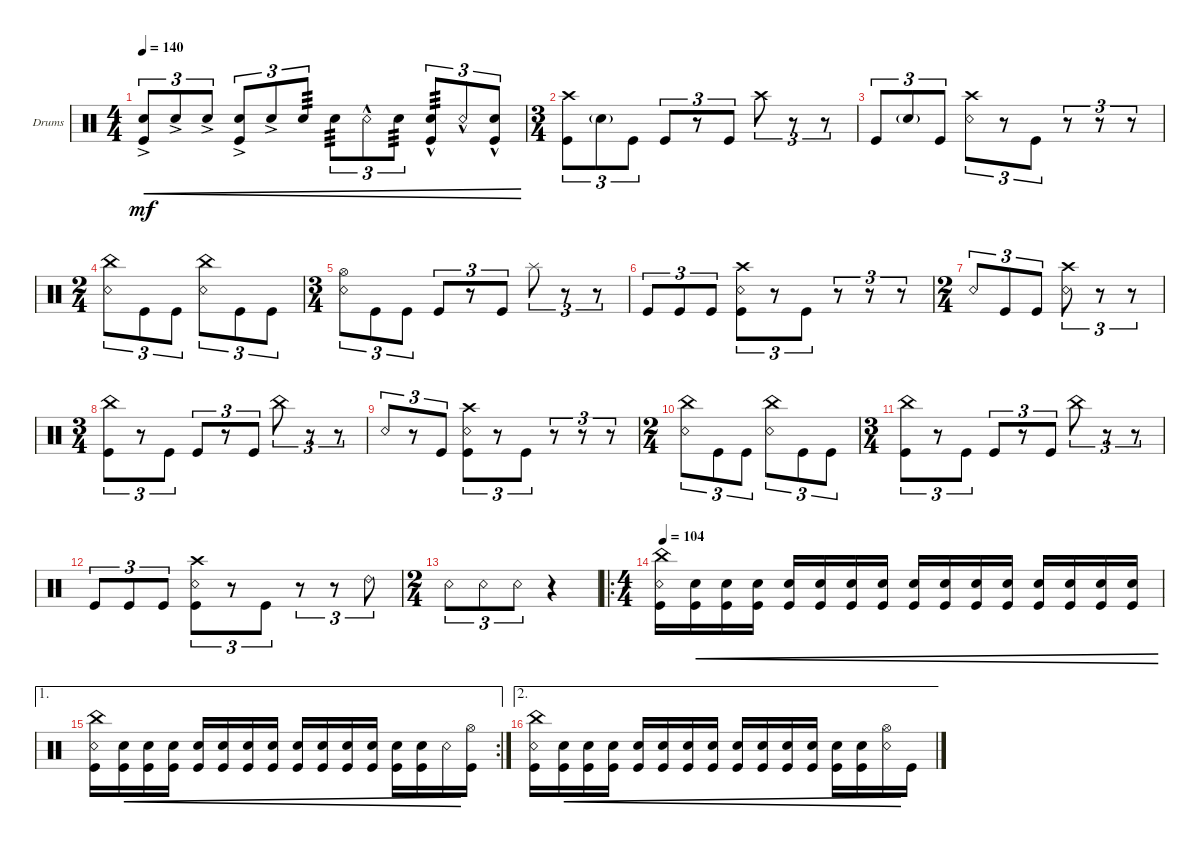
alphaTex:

\defaultSystemsLayout 4
\bracketExtendMode groupsimilarinstruments
\firstSystemTrackNameOrientation horizontal
\otherSystemsTrackNameOrientation horizontal
\track ("Drumkit" "Drums") {instrument percussion}
\staff {score}
\articulation defaults
\ts (4 4)
\tempo 140
\clef neutral
\ks c
("Snare (hit) 2"{ac} "Kick (hit)").8{tu (3 2) cre dy mf} "Snare (hit) 2"{ac}.8{tu (3 2) cre} "Snare (hit) 2"{ac}.8{tu (3 2) cre} ("Snare (hit) 2"{ac} "Kick (hit)").8{tu (3 2) cre} "Snare (hit) 2"{ac}.8{tu (3 2) cre} "Snare (hit) 2".8{tu (3 2) tp 3 cre} "Snare (hit) 2".8{tu (3 2) tp 3 cre} "Snare (rim shot)"{hac}.8{tu (3 2) cre} "Snare (hit) 2".8{tu (3 2) tp 3 cre} ("Snare (hit) 2"{hac} "Kick (hit)").8{tu (3 2) tp 3 cre} "Snare (rim shot)"{hac}.8{tu (3 2) cre} ("Snare (hit) 2"{hac} "Kick (hit)").8{tu (3 2) cre} |
\ts (3 4)
("Kick (hit)" "Crash high (hit)").8{tu (3 2)} "Snare (hit) 2"{g}.8{tu (3 2)} "Kick (hit)".8{tu (3 2)} "Kick (hit)".8{tu (3 2)} r.8{tu (3 2)} "Kick (hit)".8{tu (3 2)} "Crash high (hit)".8{tu (3 2)} r.8{tu (3 2)} r.8{tu (3 2)} |
"Kick (hit)".8{tu (3 2)} "Snare (hit) 2"{g}.8{tu (3 2)} "Kick (hit)".8{tu (3 2)} ("Crash high (hit)" "Snare (rim shot)").8{tu (3 2)} r.8{tu (3 2)} "Kick (hit)".8{tu (3 2)} r.8{tu (3 2)} r.8{tu (3 2)} r.8{tu (3 2)} |
\ts (2 4)
("Snare (rim shot)" "China (hit)").8{tu (3 2)} "Kick (hit)".8{tu (3 2)} "Kick (hit)".8{tu (3 2)} ("Snare (rim shot)" "China (hit)").8{tu (3 2)} "Kick (hit)".8{tu (3 2)} "Kick (hit)".8{tu (3 2)} |
\ts (3 4)
("Snare (rim shot)" "Hi-Hat (open)").8{tu (3 2)} "Kick (hit)".8{tu (3 2)} "Kick (hit)".8{tu (3 2)} "Kick (hit)".8{tu (3 2)} r.8{tu (3 2)} "Kick (hit)".8{tu (3 2)} "Splash (hit)".8{tu (3 2)} r.8{tu (3 2)} r.8{tu (3 2)} |
"Kick (hit)".8{tu (3 2)} "Kick (hit)".8{tu (3 2)} "Kick (hit)".8{tu (3 2)} ("Crash high (hit)" "Kick (hit)" "Snare (rim shot)").8{tu (3 2)} r.8{tu (3 2)} "Kick (hit)".8{tu (3 2)} r.8{tu (3 2)} r.8{tu (3 2)} r.8{tu (3 2)} |
\ts (2 4)
"Snare (rim shot)".8{tu (3 2)} "Kick (hit)".8{tu (3 2)} "Kick (hit)".8{tu (3 2)} ("Crash high (hit)" "Snare (rim shot)").8{tu (3 2)} r.8{tu (3 2)} r.8{tu (3 2)} |
\ts (3 4)
("Kick (hit)" "China (hit)").8{tu (3 2)} r.8{tu (3 2)} "Kick (hit)".8{tu (3 2)} "Kick (hit)".8{tu (3 2)} r.8{tu (3 2)} "Kick (hit)".8{tu (3 2)} "China (hit)".8{tu (3 2)} r.8{tu (3 2)} r.8{tu (3 2)} |
"Snare (rim shot)".8{tu (3 2)} r.8{tu (3 2)} "Kick (hit)".8{tu (3 2)} ("Crash high (hit)" "Kick (hit)" "Snare (rim shot)").8{tu (3 2)} r.8{tu (3 2)} "Kick (hit)".8{tu (3 2)} r.8{tu (3 2)} r.8{tu (3 2)} r.8{tu (3 2)} |
\ts (2 4)
("Snare (rim shot)" "China (hit)").8{tu (3 2)} "Kick (hit)".8{tu (3 2)} "Kick (hit)".8{tu (3 2)} ("Snare (rim shot)" "China (hit)").8{tu (3 2)} "Kick (hit)".8{tu (3 2)} "Kick (hit)".8{tu (3 2)} |
\ts (3 4)
("Kick (hit)" "China (hit)").8{tu (3 2)} r.8{tu (3 2)} "Kick (hit)".8{tu (3 2)} "Kick (hit)".8{tu (3 2)} r.8{tu (3 2)} "Kick (hit)".8{tu (3 2)} "China (hit)".8{tu (3 2)} r.8{tu (3 2)} r.8{tu (3 2)} |
"Kick (hit)".8{tu (3 2)} "Kick (hit)".8{tu (3 2)} "Kick (hit)".8{tu (3 2)} ("Crash high (hit)" "Kick (hit)" "Snare (rim shot)").8{tu (3 2)} r.8{tu (3 2)} "Kick (hit)".8{tu (3 2)} r.8{tu (3 2)} r.8{tu (3 2)} "Ride (bell) 2".8{tu (3 2)} |
\ts (2 4)
"Snare (rim shot)".8{tu (3 2)} "Snare (rim shot)".8{tu (3 2)} "Snare (rim shot)".8{tu (3 2)} r.4 |
\ro
\ts (4 4)
\tempo 104
("Kick (hit)" "Snare (rim shot)" "China (hit)").16 ("Kick (hit)" "Snare (hit) 2").16{cre} ("Kick (hit)" "Snare (hit) 2").16{cre} ("Kick (hit)" "Snare (hit) 2").16{cre} ("Kick (hit)" "Snare (hit) 2").16{cre} ("Kick (hit)" "Snare (hit) 2").16{cre} ("Kick (hit)" "Snare (hit) 2").16{cre} ("Kick (hit)" "Snare (hit) 2").16{cre} ("Kick (hit)" "Snare (hit) 2").16{cre} ("Kick (hit)" "Snare (hit) 2").16{cre} ("Kick (hit)" "Snare (hit) 2").16{cre} ("Kick (hit)" "Snare (hit) 2").16{cre} ("Kick (hit)" "Snare (hit) 2").16{cre} ("Kick (hit)" "Snare (hit) 2").16{cre} ("Kick (hit)" "Snare (hit) 2").16{cre} ("Kick (hit)" "Snare (hit) 2").16{cre} |
\ae 1
\rc 2
("Kick (hit)" "Snare (rim shot)" "China (hit)").16 ("Kick (hit)" "Snare (hit) 2").16{cre} ("Kick (hit)" "Snare (hit) 2").16{cre} ("Kick (hit)" "Snare (hit) 2").16{cre} ("Kick (hit)" "Snare (hit) 2").16{cre} ("Kick (hit)" "Snare (hit) 2").16{cre} ("Kick (hit)" "Snare (hit) 2").16{cre} ("Kick (hit)" "Snare (hit) 2").16{cre} ("Kick (hit)" "Snare (hit) 2").16{cre} ("Kick (hit)" "Snare (hit) 2").16{cre} ("Kick (hit)" "Snare (hit) 2").16{cre} ("Kick (hit)" "Snare (hit) 2").16{cre} ("Kick (hit)" "Snare (hit) 2").16{cre} ("Kick (hit)" "Snare (hit) 2").16{cre} "Snare (rim shot)".16{cre} ("Kick (hit)" "Hi-Hat (open)").16 |
\ae 2
("Kick (hit)" "Snare (rim shot)" "China (hit)").16 ("Kick (hit)" "Snare (hit) 2").16{cre} ("Kick (hit)" "Snare (hit) 2").16{cre} ("Kick (hit)" "Snare (hit) 2").16{cre} ("Kick (hit)" "Snare (hit) 2").16{cre} ("Kick (hit)" "Snare (hit) 2").16{cre} ("Kick (hit)" "Snare (hit) 2").16{cre} ("Kick (hit)" "Snare (hit) 2").16{cre} ("Kick (hit)" "Snare (hit) 2").16{cre} ("Kick (hit)" "Snare (hit) 2").16{cre} ("Kick (hit)" "Snare (hit) 2").16{cre} ("Kick (hit)" "Snare (hit) 2").16{cre} ("Kick (hit)" "Snare (hit) 2").16{cre} ("Kick (hit)" "Snare (hit) 2").16{cre} ("Snare (rim shot)" "Hi-Hat (open)").16{cre} "Kick (hit)".16
